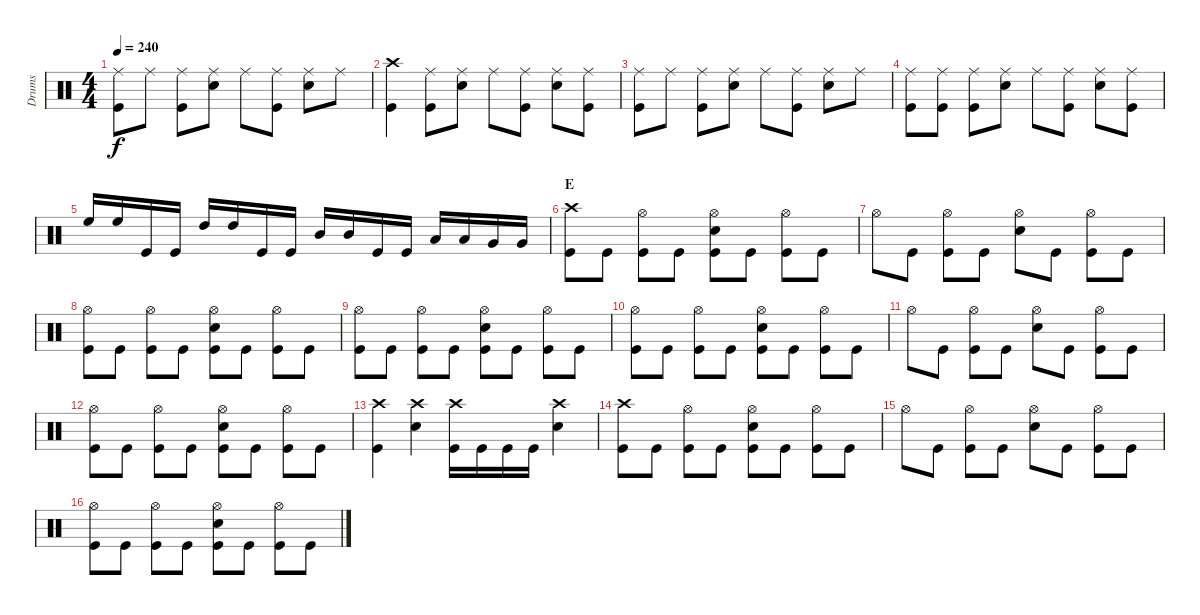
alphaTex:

\track ("Drums" "Drums") {instrument percussion}
\staff {score}
\articulation defaults
\ts (4 4)
\tempo 240
\clef neutral
\ks c
("Ride (middle)" "Kick (hit)").8{dy f} "Ride (middle)".8 ("Ride (middle)" "Kick (hit)").8 ("Ride (middle)" "Snare (hit) 2").8 "Ride (middle)".8 ("Ride (middle)" "Kick (hit)").8 ("Ride (middle)" "Snare (hit) 2").8 "Ride (middle)".8 |
("Crash high (hit)" "Kick (hit)").4 ("Ride (middle)" "Kick (hit)").8 ("Ride (middle)" "Snare (hit) 2").8 "Ride (middle)".8 ("Ride (middle)" "Kick (hit)").8 ("Ride (middle)" "Snare (hit) 2").8 ("Ride (middle)" "Kick (hit)").8 |
("Ride (middle)" "Kick (hit)").8 "Ride (middle)".8 ("Ride (middle)" "Kick (hit)").8 ("Ride (middle)" "Snare (hit) 2").8 "Ride (middle)".8 ("Ride (middle)" "Kick (hit)").8 ("Ride (middle)" "Snare (hit) 2").8 "Ride (middle)".8 |
("Ride (middle)" "Kick (hit)").8 ("Ride (middle)" "Kick (hit)").8 ("Ride (middle)" "Kick (hit)").8 ("Ride (middle)" "Snare (hit) 2").8 "Ride (middle)".8 ("Ride (middle)" "Kick (hit)").8 ("Ride (middle)" "Snare (hit) 2").8 ("Ride (middle)" "Kick (hit)").8 |
"High Floor Tom (hit)".16 "High Floor Tom (hit)".16 "Kick (hit)".16 "Kick (hit)".16 "High Tom (hit)".16 "High Tom (hit)".16 "Kick (hit)".16 "Kick (hit)".16 "Mid Tom (hit)".16 "Mid Tom (hit)".16 "Kick (hit)".16 "Kick (hit)".16 "Low Tom (hit)".16 "Low Tom (hit)".16 "Very Low Tom (hit)".16 "Very Low Tom (hit)".16 |
\section ("" "E")
("Crash high (hit)" "Kick (hit)").8 "Kick (hit)".8 ("Hi-Hat (open)" "Kick (hit)").8 "Kick (hit)".8 ("Hi-Hat (open)" "Snare (hit) 2" "Kick (hit)").8 "Kick (hit)".8 ("Hi-Hat (open)" "Kick (hit)").8 "Kick (hit)".8 |
"Hi-Hat (open)".8 "Kick (hit)".8 ("Hi-Hat (open)" "Kick (hit)").8 "Kick (hit)".8 ("Hi-Hat (open)" "Snare (hit) 2").8 "Kick (hit)".8 ("Hi-Hat (open)" "Kick (hit)").8 "Kick (hit)".8 |
("Hi-Hat (open)" "Kick (hit)").8 "Kick (hit)".8 ("Hi-Hat (open)" "Kick (hit)").8 "Kick (hit)".8 ("Hi-Hat (open)" "Snare (hit) 2" "Kick (hit)").8 "Kick (hit)".8 ("Hi-Hat (open)" "Kick (hit)").8 "Kick (hit)".8 |
("Hi-Hat (open)" "Kick (hit)").8 "Kick (hit)".8 ("Hi-Hat (open)" "Kick (hit)").8 "Kick (hit)".8 ("Hi-Hat (open)" "Snare (hit) 2" "Kick (hit)").8 "Kick (hit)".8 ("Hi-Hat (open)" "Kick (hit)").8 "Kick (hit)".8 |
("Hi-Hat (open)" "Kick (hit)").8 "Kick (hit)".8 ("Hi-Hat (open)" "Kick (hit)").8 "Kick (hit)".8 ("Hi-Hat (open)" "Snare (hit) 2" "Kick (hit)").8 "Kick (hit)".8 ("Hi-Hat (open)" "Kick (hit)").8 "Kick (hit)".8 |
"Hi-Hat (open)".8 "Kick (hit)".8 ("Hi-Hat (open)" "Kick (hit)").8 "Kick (hit)".8 ("Hi-Hat (open)" "Snare (hit) 2").8 "Kick (hit)".8 ("Hi-Hat (open)" "Kick (hit)").8 "Kick (hit)".8 |
("Hi-Hat (open)" "Kick (hit)").8 "Kick (hit)".8 ("Hi-Hat (open)" "Kick (hit)").8 "Kick (hit)".8 ("Hi-Hat (open)" "Snare (hit) 2" "Kick (hit)").8 "Kick (hit)".8 ("Hi-Hat (open)" "Kick (hit)").8 "Kick (hit)".8 |
("Crash high (hit)" "Kick (hit)").4 ("Crash high (hit)" "Snare (hit) 2").4 ("Crash high (hit)" "Kick (hit)").16 "Kick (hit)".16 "Kick (hit)".16 "Kick (hit)".16 ("Crash high (hit)" "Snare (hit) 2").4 |
("Crash high (hit)" "Kick (hit)").8 "Kick (hit)".8 ("Hi-Hat (open)" "Kick (hit)").8 "Kick (hit)".8 ("Hi-Hat (open)" "Snare (hit) 2" "Kick (hit)").8 "Kick (hit)".8 ("Hi-Hat (open)" "Kick (hit)").8 "Kick (hit)".8 |
"Hi-Hat (open)".8 "Kick (hit)".8 ("Hi-Hat (open)" "Kick (hit)").8 "Kick (hit)".8 ("Hi-Hat (open)" "Snare (hit) 2").8 "Kick (hit)".8 ("Hi-Hat (open)" "Kick (hit)").8 "Kick (hit)".8 |
("Hi-Hat (open)" "Kick (hit)").8 "Kick (hit)".8 ("Hi-Hat (open)" "Kick (hit)").8 "Kick (hit)".8 ("Hi-Hat (open)" "Snare (hit) 2" "Kick (hit)").8 "Kick (hit)".8 ("Hi-Hat (open)" "Kick (hit)").8 "Kick (hit)".8
